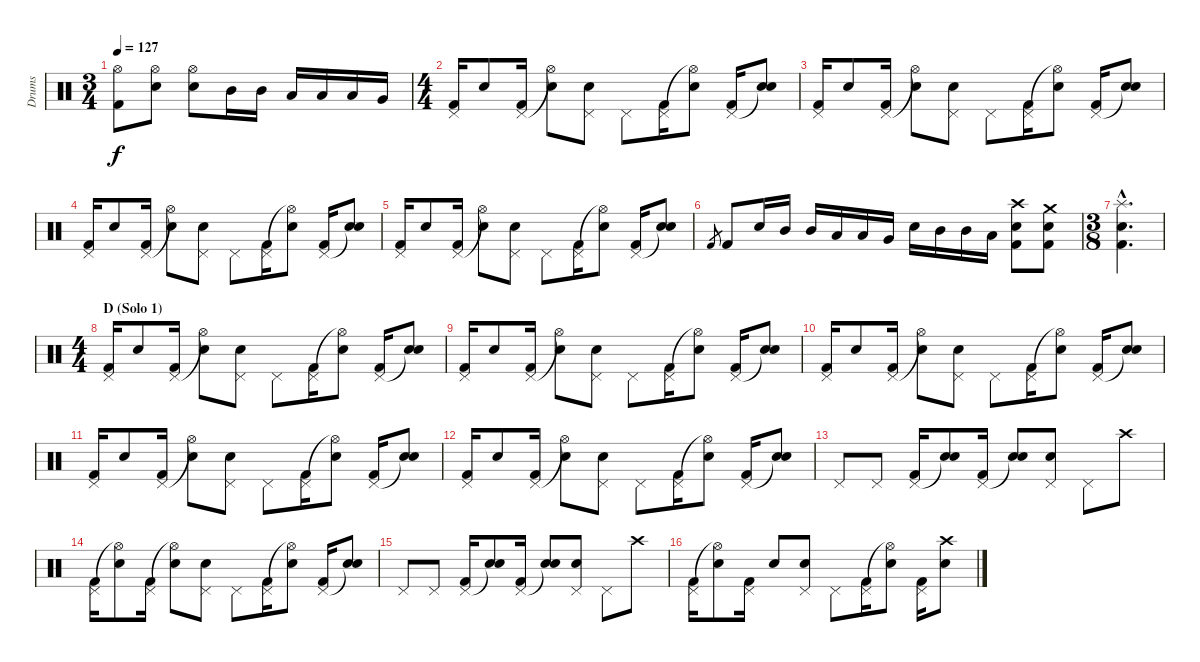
\track ("Drums" "Drums") {instrument percussion}
\staff {score}
\articulation defaults
\ts (3 4)
\tempo 127
\clef neutral
\ks c
("Hi-Hat (open)" "Kick (hit) 2").8{dy f} ("Hi-Hat (open)" "Electric Snare (hit)").8 ("Hi-Hat (open)" "Electric Snare (hit)").8 "Mid Tom (hit)".16 "Mid Tom (hit)".16 "Low Tom (hit)".16 "Low Tom (hit)".16 "Low Tom (hit)".16 "Very Low Tom (hit)".16 |
\ts (4 4)
("Pedal Hi-Hat (hit)" "Kick (hit) 2").16 "Electric Snare (hit)".8 ("Pedal Hi-Hat (hit)" "Kick (hit) 2").16 ("Hi-Hat (open)"{t} "Electric Snare (hit)").8 ("Pedal Hi-Hat (hit)" "Electric Snare (hit)").8 "Pedal Hi-Hat (hit)".8 ("Pedal Hi-Hat (hit)" "Kick (hit) 2").16 ("Hi-Hat (open)"{t} "Electric Snare (hit)").8 ("Pedal Hi-Hat (hit)" "Kick (hit) 2").16 ("Snare (hit)"{t} "Electric Snare (hit)").8 |
("Pedal Hi-Hat (hit)" "Kick (hit) 2").16 "Electric Snare (hit)".8 ("Pedal Hi-Hat (hit)" "Kick (hit) 2").16 ("Hi-Hat (open)"{t} "Electric Snare (hit)").8 ("Pedal Hi-Hat (hit)" "Electric Snare (hit)").8 "Pedal Hi-Hat (hit)".8 ("Pedal Hi-Hat (hit)" "Kick (hit) 2").16 ("Hi-Hat (open)"{t} "Electric Snare (hit)").8 ("Pedal Hi-Hat (hit)" "Kick (hit) 2").16 ("Snare (hit)"{t} "Electric Snare (hit)").8 |
("Pedal Hi-Hat (hit)" "Kick (hit) 2").16 "Electric Snare (hit)".8 ("Pedal Hi-Hat (hit)" "Kick (hit) 2").16 ("Hi-Hat (open)"{t} "Electric Snare (hit)").8 ("Pedal Hi-Hat (hit)" "Electric Snare (hit)").8 "Pedal Hi-Hat (hit)".8 ("Pedal Hi-Hat (hit)" "Kick (hit) 2").16 ("Hi-Hat (open)"{t} "Electric Snare (hit)").8 ("Pedal Hi-Hat (hit)" "Kick (hit) 2").16 ("Snare (hit)"{t} "Electric Snare (hit)").8 |
("Pedal Hi-Hat (hit)" "Kick (hit) 2").16 "Electric Snare (hit)".8 ("Pedal Hi-Hat (hit)" "Kick (hit) 2").16 ("Hi-Hat (open)"{t} "Electric Snare (hit)").8 ("Pedal Hi-Hat (hit)" "Electric Snare (hit)").8 "Pedal Hi-Hat (hit)".8 ("Pedal Hi-Hat (hit)" "Kick (hit) 2").16 ("Hi-Hat (open)"{t} "Electric Snare (hit)").8 ("Pedal Hi-Hat (hit)" "Kick (hit) 2").16 ("Snare (hit)"{t} "Electric Snare (hit)").8 |
"Kick (hit) 2".8{gr} "Kick (hit) 2".8 "Electric Snare (hit)".16 "Mid Tom (hit)".16 "Mid Tom (hit)".16 "Low Tom (hit)".16 "Low Tom (hit)".16 "Very Low Tom (hit)".16 "Electric Snare (hit)".16 "Mid Tom (hit)".16 "Mid Tom (hit)".16 "Low Tom (hit)".16 ("Crash high (hit)" "Electric Snare (hit)" "Kick (hit) 2").8 ("Crash medium (hit)" "Electric Snare (hit)" "Kick (hit) 2").8 |
\ts (3 8)
("Splash (hit)"{hac} "Electric Snare (hit)"{hac} "Kick (hit) 2"{hac}).4{d} |
\ts (4 4)
\section ("" "D (Solo 1)")
("Pedal Hi-Hat (hit)" "Kick (hit) 2").16 "Electric Snare (hit)".8 ("Pedal Hi-Hat (hit)" "Kick (hit) 2").16 ("Hi-Hat (open)"{t} "Electric Snare (hit)").8 ("Pedal Hi-Hat (hit)" "Electric Snare (hit)").8 "Pedal Hi-Hat (hit)".8 ("Pedal Hi-Hat (hit)" "Kick (hit) 2").16 ("Hi-Hat (open)"{t} "Electric Snare (hit)").8 ("Pedal Hi-Hat (hit)" "Kick (hit) 2").16 ("Snare (hit)"{t} "Electric Snare (hit)").8 |
("Pedal Hi-Hat (hit)" "Kick (hit) 2").16 "Electric Snare (hit)".8 ("Pedal Hi-Hat (hit)" "Kick (hit) 2").16 ("Hi-Hat (open)"{t} "Electric Snare (hit)").8 ("Pedal Hi-Hat (hit)" "Electric Snare (hit)").8 "Pedal Hi-Hat (hit)".8 ("Pedal Hi-Hat (hit)" "Kick (hit) 2").16 ("Hi-Hat (open)"{t} "Electric Snare (hit)").8 ("Pedal Hi-Hat (hit)" "Kick (hit) 2").16 ("Snare (hit)"{t} "Electric Snare (hit)").8 |
("Pedal Hi-Hat (hit)" "Kick (hit) 2").16 "Electric Snare (hit)".8 ("Pedal Hi-Hat (hit)" "Kick (hit) 2").16 ("Hi-Hat (open)"{t} "Electric Snare (hit)").8 ("Pedal Hi-Hat (hit)" "Electric Snare (hit)").8 "Pedal Hi-Hat (hit)".8 ("Pedal Hi-Hat (hit)" "Kick (hit) 2").16 ("Hi-Hat (open)"{t} "Electric Snare (hit)").8 ("Pedal Hi-Hat (hit)" "Kick (hit) 2").16 ("Snare (hit)"{t} "Electric Snare (hit)").8 |
("Pedal Hi-Hat (hit)" "Kick (hit) 2").16 "Electric Snare (hit)".8 ("Pedal Hi-Hat (hit)" "Kick (hit) 2").16 ("Hi-Hat (open)"{t} "Electric Snare (hit)").8 ("Pedal Hi-Hat (hit)" "Electric Snare (hit)").8 "Pedal Hi-Hat (hit)".8 ("Pedal Hi-Hat (hit)" "Kick (hit) 2").16 ("Hi-Hat (open)"{t} "Electric Snare (hit)").8 ("Pedal Hi-Hat (hit)" "Kick (hit) 2").16 ("Snare (hit)"{t} "Electric Snare (hit)").8 |
("Pedal Hi-Hat (hit)" "Kick (hit) 2").16 "Electric Snare (hit)".8 ("Pedal Hi-Hat (hit)" "Kick (hit) 2").16 ("Hi-Hat (open)"{t} "Electric Snare (hit)").8 ("Pedal Hi-Hat (hit)" "Electric Snare (hit)").8 "Pedal Hi-Hat (hit)".8 ("Pedal Hi-Hat (hit)" "Kick (hit) 2").16 ("Hi-Hat (open)"{t} "Electric Snare (hit)").8 ("Pedal Hi-Hat (hit)" "Kick (hit) 2").16 ("Snare (hit)"{t} "Electric Snare (hit)").8 |
"Pedal Hi-Hat (hit)".8 "Pedal Hi-Hat (hit)".8 ("Pedal Hi-Hat (hit)" "Kick (hit) 2").16 ("Snare (hit)"{t} "Electric Snare (hit)").8 ("Pedal Hi-Hat (hit)" "Kick (hit) 2").16 ("Snare (hit)"{t} "Electric Snare (hit)").8 ("Pedal Hi-Hat (hit)" "Electric Snare (hit)").8 "Pedal Hi-Hat (hit)".8 "Crash high (hit)".8 |
("Pedal Hi-Hat (hit)" "Kick (hit) 2").16 ("Hi-Hat (open)"{t} "Electric Snare (hit)").8 ("Pedal Hi-Hat (hit)" "Kick (hit) 2").16 ("Hi-Hat (open)"{t} "Electric Snare (hit)").8 ("Pedal Hi-Hat (hit)" "Electric Snare (hit)").8 "Pedal Hi-Hat (hit)".8 ("Pedal Hi-Hat (hit)" "Kick (hit) 2").16 ("Hi-Hat (open)"{t} "Electric Snare (hit)").8 ("Pedal Hi-Hat (hit)" "Kick (hit) 2").16 ("Snare (hit)"{t} "Electric Snare (hit)").8 |
"Pedal Hi-Hat (hit)".8 "Pedal Hi-Hat (hit)".8 ("Pedal Hi-Hat (hit)" "Kick (hit) 2").16 ("Snare (hit)"{t} "Electric Snare (hit)").8 ("Pedal Hi-Hat (hit)" "Kick (hit) 2").16 ("Snare (hit)"{t} "Electric Snare (hit)").8 ("Pedal Hi-Hat (hit)" "Electric Snare (hit)").8 "Pedal Hi-Hat (hit)".8 "Crash high (hit)".8 |
("Pedal Hi-Hat (hit)" "Kick (hit) 2").16 ("Hi-Hat (open)"{t} "Electric Snare (hit)").8 ("Pedal Hi-Hat (hit)" "Kick (hit) 2").16 "Electric Snare (hit)".8 ("Pedal Hi-Hat (hit)" "Electric Snare (hit)").8 "Pedal Hi-Hat (hit)".8 ("Pedal Hi-Hat (hit)" "Kick (hit) 2").16 ("Hi-Hat (open)"{t} "Electric Snare (hit)").8 ("Pedal Hi-Hat (hit)" "Kick (hit) 2").16 ("Crash high (hit)" "Electric Snare (hit)").8
